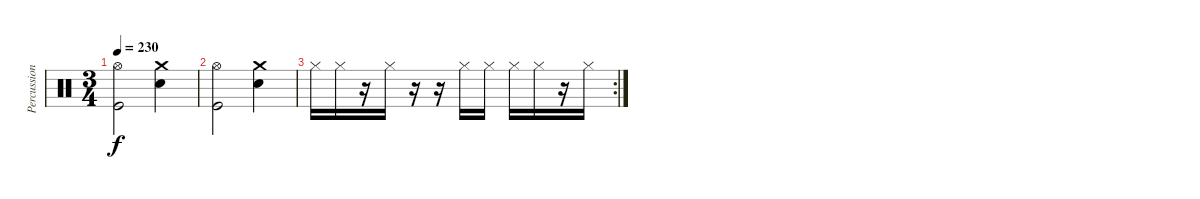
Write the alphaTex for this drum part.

\track ("Percussion" "Percussion") {instrument percussion}
\staff {score}
\articulation defaults
\ts (3 4)
\tempo 230
\clef neutral
\ks c
("Hi-Hat (open)" "Kick (hit)").2{dy f} ("Crash medium (hit)" "Snare (hit) 2").4 |
("Hi-Hat (open)" "Kick (hit)").2 ("Crash medium (hit)" "Snare (hit) 2").4 |
\rc 2 "Hi-Hat (closed)".16 "Hi-Hat (closed)".16
r.16 "Hi-Hat (closed)".16 r.16 r.16 "Hi-Hat (closed)".16 "Hi-Hat (closed)".16 "Hi-Hat (closed)".16 "Hi-Hat (closed)".16 r.16 "Hi-Hat (closed)".16
